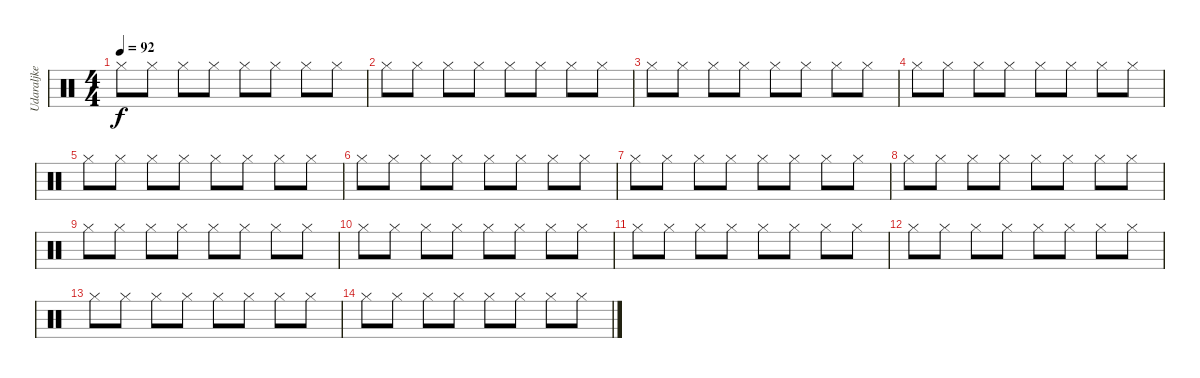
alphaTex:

\track ("Udaraljke" "Udaraljke") {instrument percussion}
\staff {score}
\articulation defaults
\ts (4 4)
\tempo 92
\clef neutral
\ks c "Hi-Hat (closed)".8{dy f} "Hi-Hat (closed)".8 "Hi-Hat (closed)".8 "Hi-Hat (closed)".8 "Hi-Hat (closed)".8 "Hi-Hat (closed)".8 "Hi-Hat (closed)".8 "Hi-Hat (closed)".8
|
"Hi-Hat (closed)".8 "Hi-Hat (closed)".8 "Hi-Hat (closed)".8 "Hi-Hat (closed)".8 "Hi-Hat (closed)".8 "Hi-Hat (closed)".8 "Hi-Hat (closed)".8 "Hi-Hat (closed)".8 |
"Hi-Hat (closed)".8 "Hi-Hat (closed)".8 "Hi-Hat (closed)".8 "Hi-Hat (closed)".8 "Hi-Hat (closed)".8 "Hi-Hat (closed)".8 "Hi-Hat (closed)".8 "Hi-Hat (closed)".8 |
"Hi-Hat (closed)".8 "Hi-Hat (closed)".8 "Hi-Hat (closed)".8 "Hi-Hat (closed)".8 "Hi-Hat (closed)".8 "Hi-Hat (closed)".8 "Hi-Hat (closed)".8 "Hi-Hat (closed)".8 |
"Hi-Hat (closed)".8 "Hi-Hat (closed)".8 "Hi-Hat (closed)".8 "Hi-Hat (closed)".8 "Hi-Hat (closed)".8 "Hi-Hat (closed)".8 "Hi-Hat (closed)".8 "Hi-Hat (closed)".8 |
"Hi-Hat (closed)".8 "Hi-Hat (closed)".8 "Hi-Hat (closed)".8 "Hi-Hat (closed)".8 "Hi-Hat (closed)".8 "Hi-Hat (closed)".8 "Hi-Hat (closed)".8 "Hi-Hat (closed)".8 |
"Hi-Hat (closed)".8 "Hi-Hat (closed)".8 "Hi-Hat (closed)".8 "Hi-Hat (closed)".8 "Hi-Hat (closed)".8 "Hi-Hat (closed)".8 "Hi-Hat (closed)".8 "Hi-Hat (closed)".8 |
"Hi-Hat (closed)".8 "Hi-Hat (closed)".8 "Hi-Hat (closed)".8 "Hi-Hat (closed)".8 "Hi-Hat (closed)".8 "Hi-Hat (closed)".8 "Hi-Hat (closed)".8 "Hi-Hat (closed)".8 |
"Hi-Hat (closed)".8 "Hi-Hat (closed)".8 "Hi-Hat (closed)".8 "Hi-Hat (closed)".8 "Hi-Hat (closed)".8 "Hi-Hat (closed)".8 "Hi-Hat (closed)".8 "Hi-Hat (closed)".8 |
"Hi-Hat (closed)".8 "Hi-Hat (closed)".8 "Hi-Hat (closed)".8 "Hi-Hat (closed)".8 "Hi-Hat (closed)".8 "Hi-Hat (closed)".8 "Hi-Hat (closed)".8 "Hi-Hat (closed)".8 |
"Hi-Hat (closed)".8 "Hi-Hat (closed)".8 "Hi-Hat (closed)".8 "Hi-Hat (closed)".8 "Hi-Hat (closed)".8 "Hi-Hat (closed)".8 "Hi-Hat (closed)".8 "Hi-Hat (closed)".8 |
"Hi-Hat (closed)".8 "Hi-Hat (closed)".8 "Hi-Hat (closed)".8 "Hi-Hat (closed)".8 "Hi-Hat (closed)".8 "Hi-Hat (closed)".8 "Hi-Hat (closed)".8 "Hi-Hat (closed)".8 |
"Hi-Hat (closed)".8 "Hi-Hat (closed)".8 "Hi-Hat (closed)".8 "Hi-Hat (closed)".8 "Hi-Hat (closed)".8 "Hi-Hat (closed)".8 "Hi-Hat (closed)".8 "Hi-Hat (closed)".8 |
"Hi-Hat (closed)".8 "Hi-Hat (closed)".8 "Hi-Hat (closed)".8 "Hi-Hat (closed)".8 "Hi-Hat (closed)".8 "Hi-Hat (closed)".8 "Hi-Hat (closed)".8 "Hi-Hat (closed)".8
